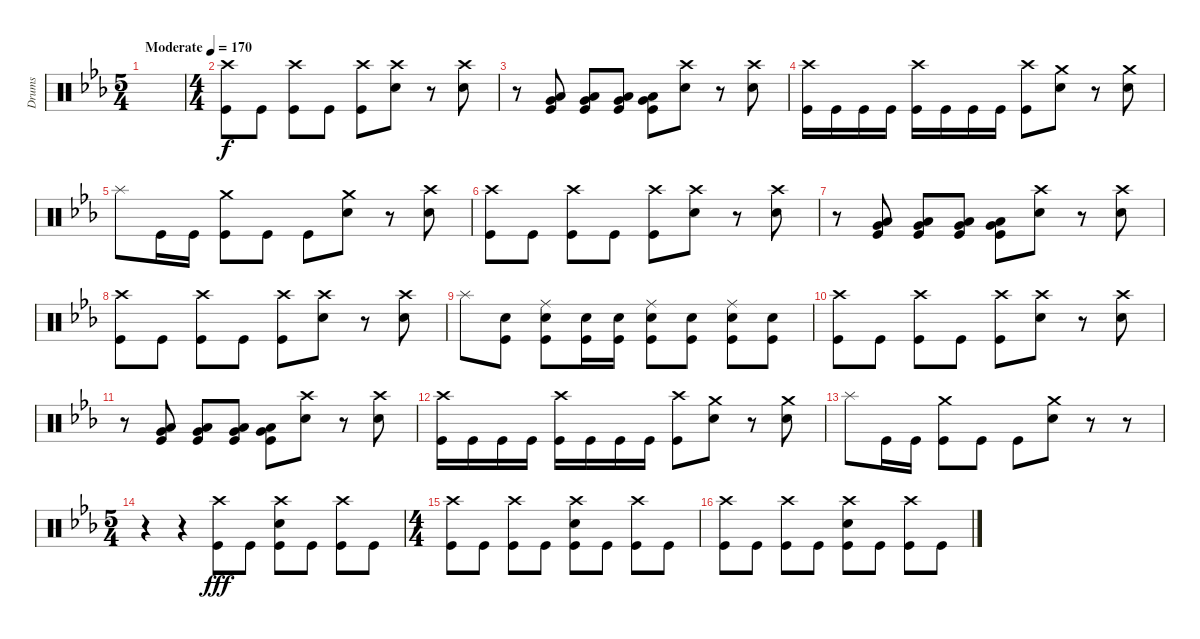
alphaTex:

\track ("Drums" "Drums") {instrument percussion}
\staff {score}
\articulation defaults
\ts (5 4)
\tempo (170 "Moderate")
\clef neutral
\ks cminor
|
\ts (4 4)
("Crash high (hit)" "Kick (hit)").8 "Kick (hit)".8 ("Crash high (hit)" "Kick (hit)").8 "Kick (hit)".8 ("Crash high (hit)" "Kick (hit)").8 ("Crash high (hit)" "Snare (hit) 2").8 r.8 ("Crash high (hit)" "Snare (hit) 2").8 |
r.8 ("Low Floor Tom (hit)" "Very Low Tom (hit)" "Kick (hit)").8 ("Low Floor Tom (hit)" "Very Low Tom (hit)" "Kick (hit)").8 ("Very Low Tom (hit)" "Low Floor Tom (hit)" "Kick (hit)").8 ("Low Floor Tom (hit)" "Very Low Tom (hit)" "Kick (hit)").8 ("Crash high (hit)" "Snare (hit) 2").8 r.8 ("Crash high (hit)" "Snare (hit) 2").8 |
("Crash high (hit)" "Kick (hit)").16 "Kick (hit)".16 "Kick (hit)".16 "Kick (hit)".16 ("Crash high (hit)" "Kick (hit)").16 "Kick (hit)".16 "Kick (hit)".16 "Kick (hit)".16 ("Crash high (hit)" "Kick (hit)").8 ("Crash medium (hit)" "Snare (hit) 2").8 r.8 ("Crash medium (hit)" "Snare (hit) 2").8 |
"Splash (hit)".8 "Kick (hit)".16 "Kick (hit)".16 ("Crash medium (hit)" "Kick (hit)").8 "Kick (hit)".8 "Kick (hit)".8 ("Crash medium (hit)" "Snare (hit) 2").8 r.8 ("Crash high (hit)" "Snare (hit) 2").8 |
("Crash high (hit)" "Kick (hit)").8 "Kick (hit)".8 ("Crash high (hit)" "Kick (hit)").8 "Kick (hit)".8 ("Crash high (hit)" "Kick (hit)").8 ("Crash high (hit)" "Snare (hit) 2").8 r.8 ("Crash high (hit)" "Snare (hit) 2").8 |
r.8 ("Low Floor Tom (hit)" "Very Low Tom (hit)" "Kick (hit)").8 ("Low Floor Tom (hit)" "Very Low Tom (hit)" "Kick (hit)").8 ("Very Low Tom (hit)" "Low Floor Tom (hit)" "Kick (hit)").8 ("Low Floor Tom (hit)" "Very Low Tom (hit)" "Kick (hit)").8 ("Crash high (hit)" "Snare (hit) 2").8 r.8 ("Crash high (hit)" "Snare (hit) 2").8 |
("Crash high (hit)" "Kick (hit)").8 "Kick (hit)".8 ("Crash high (hit)" "Kick (hit)").8 "Kick (hit)".8 ("Crash high (hit)" "Kick (hit)").8 ("Crash high (hit)" "Snare (hit) 2").8 r.8 ("Crash high (hit)" "Snare (hit) 2").8 |
"Splash (hit)".8 ("Snare (hit) 2" "Kick (hit)").8 ("Ride (middle)" "Snare (hit) 2" "Kick (hit)").8 ("Snare (hit) 2" "Kick (hit)").16 ("Snare (hit) 2" "Kick (hit)").16 ("Ride (middle)" "Snare (hit) 2" "Kick (hit)").8 ("Snare (hit) 2" "Kick (hit)").8 ("Ride (middle)" "Snare (hit) 2" "Kick (hit)").8 ("Snare (hit) 2" "Kick (hit)").8 |
("Crash high (hit)" "Kick (hit)").8 "Kick (hit)".8 ("Crash high (hit)" "Kick (hit)").8 "Kick (hit)".8 ("Crash high (hit)" "Kick (hit)").8 ("Crash high (hit)" "Snare (hit) 2").8 r.8 ("Crash high (hit)" "Snare (hit) 2").8 |
r.8 ("Low Floor Tom (hit)" "Very Low Tom (hit)" "Kick (hit)").8 ("Low Floor Tom (hit)" "Very Low Tom (hit)" "Kick (hit)").8 ("Very Low Tom (hit)" "Low Floor Tom (hit)" "Kick (hit)").8 ("Low Floor Tom (hit)" "Very Low Tom (hit)" "Kick (hit)").8 ("Crash high (hit)" "Snare (hit) 2").8 r.8 ("Crash high (hit)" "Snare (hit) 2").8 |
("Crash high (hit)" "Kick (hit)").16 "Kick (hit)".16 "Kick (hit)".16 "Kick (hit)".16 ("Crash high (hit)" "Kick (hit)").16 "Kick (hit)".16 "Kick (hit)".16 "Kick (hit)".16 ("Crash high (hit)" "Kick (hit)").8 ("Crash medium (hit)" "Snare (hit) 2").8 r.8 ("Crash medium (hit)" "Snare (hit) 2").8 |
"Splash (hit)".8 "Kick (hit)".16 "Kick (hit)".16 ("Crash medium (hit)" "Kick (hit)").8 "Kick (hit)".8 "Kick (hit)".8 ("Crash medium (hit)" "Snare (hit) 2").8 r.8 r.8 |
\ts (5 4)
r.4 r.4 ("Crash high (hit)" "Kick (hit)").8{dy fff} "Kick (hit)".8 ("Crash high (hit)" "Snare (hit) 2" "Kick (hit)").8 "Kick (hit)".8 ("Crash high (hit)" "Kick (hit)").8 "Kick (hit)".8 |
\ts (4 4)
("Crash high (hit)" "Kick (hit)").8 "Kick (hit)".8 ("Crash high (hit)" "Kick (hit)").8 "Kick (hit)".8 ("Crash high (hit)" "Snare (hit) 2" "Kick (hit)").8 "Kick (hit)".8 ("Crash high (hit)" "Kick (hit)").8 "Kick (hit)".8 |
("Crash high (hit)" "Kick (hit)").8 "Kick (hit)".8 ("Crash high (hit)" "Kick (hit)").8 "Kick (hit)".8 ("Crash high (hit)" "Snare (hit) 2" "Kick (hit)").8 "Kick (hit)".8 ("Crash high (hit)" "Kick (hit)").8 "Kick (hit)".8
